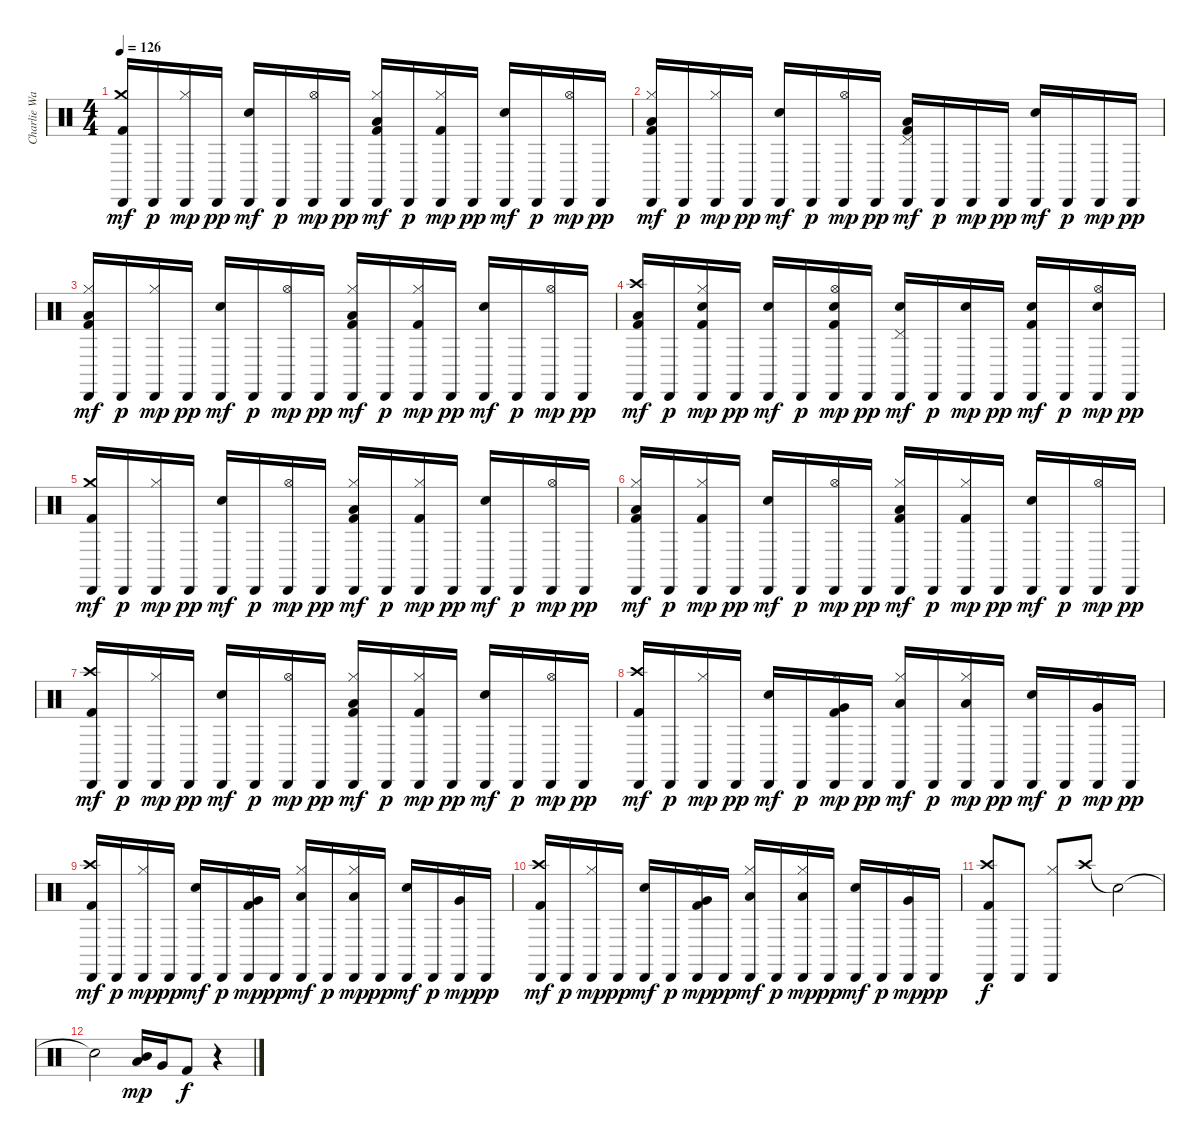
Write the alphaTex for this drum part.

\track ("Charlie Watts" "Charlie Wa") {instrument percussion}
\staff {score}
\articulation defaults
\ts (4 4)
\tempo 126
\clef neutral
\ks c
("Kick (hit) 2" "Crash medium (hit)" "Cabasa (hit)").16{dy mf} "Cabasa (hit)".16{dy p} ("Hi-Hat (closed)" "Cabasa (hit)").16{dy mp} "Cabasa (hit)".16{dy pp} ("Electric Snare (hit)" "Cabasa (hit)").16{dy mf} "Cabasa (hit)".16{dy p} ("Hi-Hat (open)" "Cabasa (hit)").16{dy mp} "Cabasa (hit)".16{dy pp} ("Kick (hit) 2" "Hi-Hat (closed)" "Low Tom (hit)" "Cabasa (hit)").16{dy mf} "Cabasa (hit)".16{dy p} ("Kick (hit) 2" "Hi-Hat (closed)" "Cabasa (hit)").16{dy mp} "Cabasa (hit)".16{dy pp} ("Electric Snare (hit)" "Cabasa (hit)").16{dy mf} "Cabasa (hit)".16{dy p} ("Hi-Hat (open)" "Cabasa (hit)").16{dy mp} "Cabasa (hit)".16{dy pp} |
("Kick (hit) 2" "Hi-Hat (closed)" "Low Tom (hit)" "Cabasa (hit)").16{dy mf} "Cabasa (hit)".16{dy p} ("Hi-Hat (closed)" "Cabasa (hit)").16{dy mp} "Cabasa (hit)".16{dy pp} ("Electric Snare (hit)" "Cabasa (hit)").16{dy mf} "Cabasa (hit)".16{dy p} ("Hi-Hat (open)" "Cabasa (hit)").16{dy mp} "Cabasa (hit)".16{dy pp} ("Kick (hit) 2" "Pedal Hi-Hat (hit)" "Low Tom (hit)" "Cabasa (hit)").16{dy mf} "Cabasa (hit)".16{dy p} "Cabasa (hit)".16{dy mp} "Cabasa (hit)".16{dy pp} ("Electric Snare (hit)" "Cabasa (hit)").16{dy mf} "Cabasa (hit)".16{dy p} "Cabasa (hit)".16{dy mp} "Cabasa (hit)".16{dy pp} |
("Kick (hit) 2" "Hi-Hat (closed)" "Low Tom (hit)" "Cabasa (hit)").16{dy mf} "Cabasa (hit)".16{dy p} ("Hi-Hat (closed)" "Cabasa (hit)").16{dy mp} "Cabasa (hit)".16{dy pp} ("Electric Snare (hit)" "Cabasa (hit)").16{dy mf} "Cabasa (hit)".16{dy p} ("Hi-Hat (open)" "Cabasa (hit)").16{dy mp} "Cabasa (hit)".16{dy pp} ("Kick (hit) 2" "Hi-Hat (closed)" "Low Tom (hit)" "Cabasa (hit)").16{dy mf} "Cabasa (hit)".16{dy p} ("Kick (hit) 2" "Hi-Hat (closed)" "Cabasa (hit)").16{dy mp} "Cabasa (hit)".16{dy pp} ("Electric Snare (hit)" "Cabasa (hit)").16{dy mf} "Cabasa (hit)".16{dy p} ("Hi-Hat (open)" "Cabasa (hit)").16{dy mp} "Cabasa (hit)".16{dy pp} |
("Kick (hit) 2" "Low Tom (hit)" "Crash high (hit)" "Cabasa (hit)").16{dy mf} "Cabasa (hit)".16{dy p} ("Kick (hit) 2" "Electric Snare (hit)" "Hi-Hat (closed)" "Cabasa (hit)").16{dy mp} "Cabasa (hit)".16{dy pp} ("Electric Snare (hit)" "Cabasa (hit)").16{dy mf} "Cabasa (hit)".16{dy p} ("Kick (hit) 2" "Electric Snare (hit)" "Hi-Hat (open)" "Cabasa (hit)").16{dy mp} "Cabasa (hit)".16{dy pp} ("Electric Snare (hit)" "Pedal Hi-Hat (hit)" "Cabasa (hit)").16{dy mf} "Cabasa (hit)".16{dy p} ("Electric Snare (hit)" "Cabasa (hit)").16{dy mp} "Cabasa (hit)".16{dy pp} ("Kick (hit) 2" "Electric Snare (hit)" "Cabasa (hit)").16{dy mf} "Cabasa (hit)".16{dy p} ("Electric Snare (hit)" "Hi-Hat (open)" "Cabasa (hit)").16{dy mp} "Cabasa (hit)".16{dy pp} |
("Kick (hit) 2" "Crash medium (hit)" "Cabasa (hit)").16{dy mf} "Cabasa (hit)".16{dy p} ("Hi-Hat (closed)" "Cabasa (hit)").16{dy mp} "Cabasa (hit)".16{dy pp} ("Electric Snare (hit)" "Cabasa (hit)").16{dy mf} "Cabasa (hit)".16{dy p} ("Hi-Hat (open)" "Cabasa (hit)").16{dy mp} "Cabasa (hit)".16{dy pp} ("Kick (hit) 2" "Hi-Hat (closed)" "Low Tom (hit)" "Cabasa (hit)").16{dy mf} "Cabasa (hit)".16{dy p} ("Kick (hit) 2" "Hi-Hat (closed)" "Cabasa (hit)").16{dy mp} "Cabasa (hit)".16{dy pp} ("Electric Snare (hit)" "Cabasa (hit)").16{dy mf} "Cabasa (hit)".16{dy p} ("Hi-Hat (open)" "Cabasa (hit)").16{dy mp} "Cabasa (hit)".16{dy pp} |
("Kick (hit) 2" "Hi-Hat (closed)" "Low Tom (hit)" "Cabasa (hit)").16{dy mf} "Cabasa (hit)".16{dy p} ("Kick (hit) 2" "Hi-Hat (closed)" "Cabasa (hit)").16{dy mp} "Cabasa (hit)".16{dy pp} ("Electric Snare (hit)" "Cabasa (hit)").16{dy mf} "Cabasa (hit)".16{dy p} ("Hi-Hat (open)" "Cabasa (hit)").16{dy mp} "Cabasa (hit)".16{dy pp} ("Kick (hit) 2" "Hi-Hat (closed)" "Low Tom (hit)" "Cabasa (hit)").16{dy mf} "Cabasa (hit)".16{dy p} ("Kick (hit) 2" "Hi-Hat (closed)" "Cabasa (hit)").16{dy mp} "Cabasa (hit)".16{dy pp} ("Electric Snare (hit)" "Cabasa (hit)").16{dy mf} "Cabasa (hit)".16{dy p} ("Hi-Hat (open)" "Cabasa (hit)").16{dy mp} "Cabasa (hit)".16{dy pp} |
("Kick (hit) 2" "Crash high (hit)" "Cabasa (hit)").16{dy mf} "Cabasa (hit)".16{dy p} ("Hi-Hat (closed)" "Cabasa (hit)").16{dy mp} "Cabasa (hit)".16{dy pp} ("Electric Snare (hit)" "Cabasa (hit)").16{dy mf} "Cabasa (hit)".16{dy p} ("Hi-Hat (open)" "Cabasa (hit)").16{dy mp} "Cabasa (hit)".16{dy pp} ("Kick (hit) 2" "Hi-Hat (closed)" "Low Tom (hit)" "Cabasa (hit)").16{dy mf} "Cabasa (hit)".16{dy p} ("Kick (hit) 2" "Hi-Hat (closed)" "Cabasa (hit)").16{dy mp} "Cabasa (hit)".16{dy pp} ("Electric Snare (hit)" "Cabasa (hit)").16{dy mf} "Cabasa (hit)".16{dy p} ("Hi-Hat (open)" "Cabasa (hit)").16{dy mp} "Cabasa (hit)".16{dy pp} |
("Kick (hit) 2" "Crash high (hit)" "Cabasa (hit)").16{dy mf} "Cabasa (hit)".16{dy p} ("Hi-Hat (closed)" "Cabasa (hit)").16{dy mp} "Cabasa (hit)".16{dy pp} ("Electric Snare (hit)" "Cabasa (hit)").16{dy mf} "Cabasa (hit)".16{dy p} ("Kick (hit) 2" "Hi-Hat (closed)" "Very Low Tom (hit)" "Cabasa (hit)").16{dy mp} "Cabasa (hit)".16{dy pp} ("Hi-Hat (closed)" "Low Tom (hit)" "Cabasa (hit)").16{dy mf} "Cabasa (hit)".16{dy p} ("Hi-Hat (closed)" "Low Tom (hit)" "Cabasa (hit)").16{dy mp} "Cabasa (hit)".16{dy pp} ("Electric Snare (hit)" "Cabasa (hit)").16{dy mf} "Cabasa (hit)".16{dy p} ("Hi-Hat (closed)" "Very Low Tom (hit)" "Cabasa (hit)").16{dy mp} "Cabasa (hit)".16{dy pp} |
("Kick (hit) 2" "Crash high (hit)" "Cabasa (hit)").16{dy mf} "Cabasa (hit)".16{dy p} ("Hi-Hat (closed)" "Cabasa (hit)").16{dy mp} "Cabasa (hit)".16{dy pp} ("Electric Snare (hit)" "Cabasa (hit)").16{dy mf} "Cabasa (hit)".16{dy p} ("Kick (hit) 2" "Hi-Hat (closed)" "Very Low Tom (hit)" "Cabasa (hit)").16{dy mp} "Cabasa (hit)".16{dy pp} ("Hi-Hat (closed)" "Low Tom (hit)" "Cabasa (hit)").16{dy mf} "Cabasa (hit)".16{dy p} ("Hi-Hat (closed)" "Low Tom (hit)" "Cabasa (hit)").16{dy mp} "Cabasa (hit)".16{dy pp} ("Electric Snare (hit)" "Cabasa (hit)").16{dy mf} "Cabasa (hit)".16{dy p} ("Hi-Hat (closed)" "Very Low Tom (hit)" "Cabasa (hit)").16{dy mp} "Cabasa (hit)".16{dy pp} |
("Kick (hit) 2" "Crash high (hit)" "Cabasa (hit)").16{dy mf} "Cabasa (hit)".16{dy p} ("Hi-Hat (closed)" "Cabasa (hit)").16{dy mp} "Cabasa (hit)".16{dy pp} ("Electric Snare (hit)" "Cabasa (hit)").16{dy mf} "Cabasa (hit)".16{dy p} ("Kick (hit) 2" "Hi-Hat (closed)" "Very Low Tom (hit)" "Cabasa (hit)").16{dy mp} "Cabasa (hit)".16{dy pp} ("Hi-Hat (closed)" "Low Tom (hit)" "Cabasa (hit)").16{dy mf} "Cabasa (hit)".16{dy p} ("Hi-Hat (closed)" "Low Tom (hit)" "Cabasa (hit)").16{dy mp} "Cabasa (hit)".16{dy pp} ("Electric Snare (hit)" "Cabasa (hit)").16{dy mf} "Cabasa (hit)".16{dy p} ("Hi-Hat (closed)" "Very Low Tom (hit)" "Cabasa (hit)").16{dy mp} "Cabasa (hit)".16{dy pp} |
("Kick (hit) 2" "Crash high (hit)" "Cabasa (hit)").8{dy f} "Cabasa (hit)".8 ("Hi-Hat (closed)" "Cabasa (hit)").8 "Crash high (hit)".8 "Snare (hit)"{t}.2 |
"Snare (hit)"{t}.2 ("Mid Tom (hit)" "Low Tom (hit)").16{dy mp} "Very Low Tom (hit)".16 "Kick (hit) 2".8{dy f} r.4
